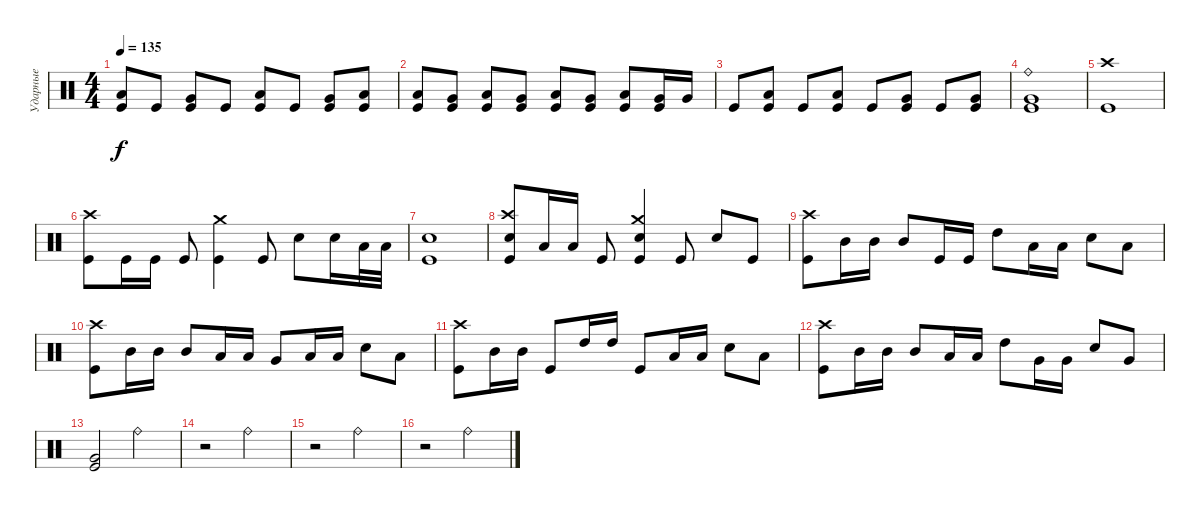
\track ("Ударные" "Ударные") {instrument percussion}
\staff {score}
\articulation defaults
\ts (4 4)
\tempo 135
\clef neutral
\ks c
("Low Tom (hit)" "Kick (hit)").8{dy f} "Kick (hit)".8 ("Very Low Tom (hit)" "Kick (hit)").8 "Kick (hit)".8 ("Low Tom (hit)" "Kick (hit)").8 "Kick (hit)".8 ("Very Low Tom (hit)" "Kick (hit)").8 ("Low Tom (hit)" "Kick (hit)").8 |
("Low Tom (hit)" "Kick (hit)").8 ("Very Low Tom (hit)" "Kick (hit)").8 ("Low Tom (hit)" "Kick (hit)").8 ("Very Low Tom (hit)" "Kick (hit)").8 ("Low Tom (hit)" "Kick (hit)").8 ("Very Low Tom (hit)" "Kick (hit)").8 ("Low Tom (hit)" "Kick (hit)").8 ("Very Low Tom (hit)" "Kick (hit)").16 "Very Low Tom (hit)".16 |
"Kick (hit)".8 ("Low Tom (hit)" "Kick (hit)").8 "Kick (hit)".8 ("Low Tom (hit)" "Kick (hit)").8 "Kick (hit)".8 ("Very Low Tom (hit)" "Kick (hit)").8 "Kick (hit)".8 ("Very Low Tom (hit)" "Kick (hit)").8 |
("Ride (bell)" "Very Low Tom (hit)" "Kick (hit)").1 |
("Crash high (hit)" "Kick (hit)").1 |
("Crash high (hit)" "Kick (hit)").8 "Kick (hit)".16 "Kick (hit)".16 "Kick (hit)".8 ("Crash medium (hit)" "Kick (hit)").4 "Kick (hit)".8 "Electric Snare (hit)".8 "Electric Snare (hit)".16 "Low Tom (hit)".32 "Low Tom (hit)".32 |
("Electric Snare (hit)" "Kick (hit)").1 |
("Crash high (hit)" "Electric Snare (hit)" "Kick (hit)").8 "Low Tom (hit)".16 "Low Tom (hit)".16 "Kick (hit)".8 ("Crash medium (hit)" "Electric Snare (hit)" "Kick (hit)").4 "Kick (hit)".8 "Electric Snare (hit)".8 "Kick (hit)".8 |
("Crash high (hit)" "Kick (hit)").8 "Mid Tom (hit)".16 "Mid Tom (hit)".16 "Mid Tom (hit)".8 "Kick (hit)".16 "Kick (hit)".16 "High Tom (hit)".8 "Low Tom (hit)".16 "Low Tom (hit)".16 "Electric Snare (hit)".8 "Low Tom (hit)".8 |
("Crash high (hit)" "Kick (hit)").8 "Mid Tom (hit)".16 "Mid Tom (hit)".16 "Mid Tom (hit)".8 "Low Tom (hit)".16 "Low Tom (hit)".16 "Very Low Tom (hit)".8 "Low Tom (hit)".16 "Low Tom (hit)".16 "Electric Snare (hit)".8 "Low Tom (hit)".8 |
("Crash high (hit)" "Kick (hit)").8 "Mid Tom (hit)".16 "Mid Tom (hit)".16 "Kick (hit)".8 "High Tom (hit)".16 "High Tom (hit)".16 "Kick (hit)".8 "Low Tom (hit)".16 "Low Tom (hit)".16 "Electric Snare (hit)".8 "Low Tom (hit)".8 |
("Crash high (hit)" "Kick (hit)").8 "Mid Tom (hit)".16 "Mid Tom (hit)".16 "Mid Tom (hit)".8 "Low Tom (hit)".16 "Low Tom (hit)".16 "High Tom (hit)".8 "Very Low Tom (hit)".16 "Very Low Tom (hit)".16 "Electric Snare (hit)".8 "Very Low Tom (hit)".8 |
("Very Low Tom (hit)" "Kick (hit)").2 "Ride (bell)".2 |
r.2 "Ride (bell)".2 |
r.2 "Ride (bell)".2 |
r.2 "Ride (bell)".2
